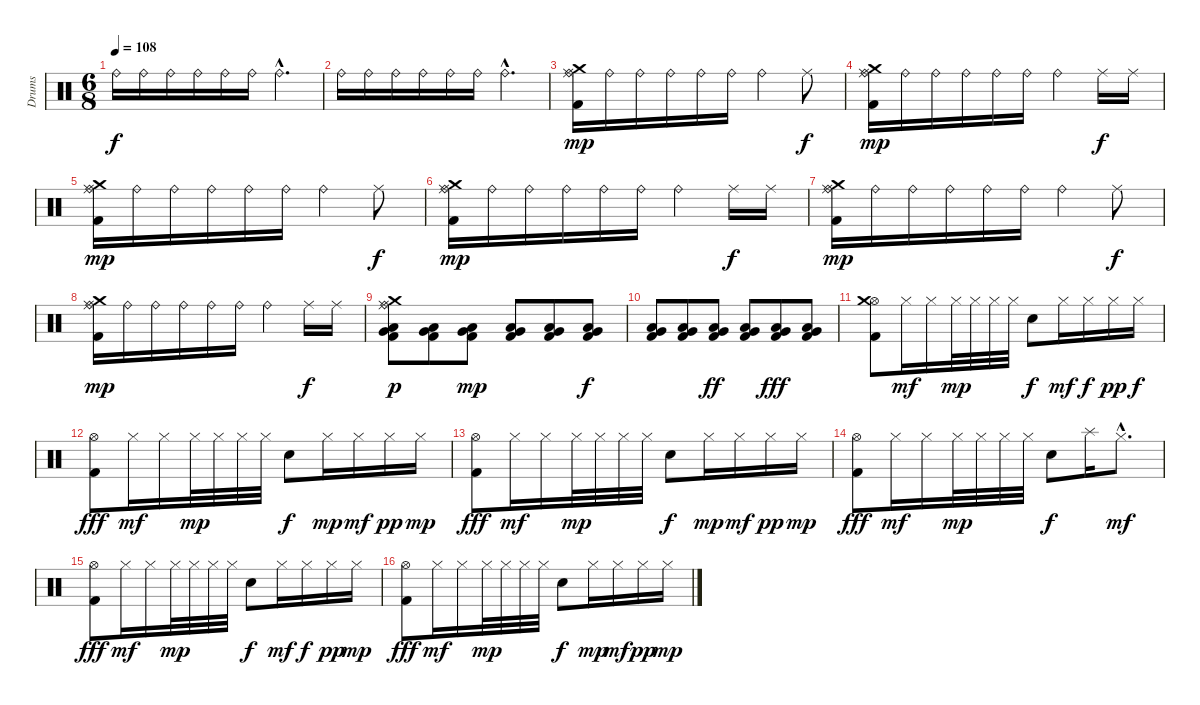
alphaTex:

\track ("Drums" "Drums") {instrument percussion}
\staff {score}
\articulation defaults
\ts (6 8)
\tempo 108
\clef neutral
\ks c "Ride (bell)".16{dy f} "Ride (bell)".16 "Ride (bell)".16 "Ride (bell)".16 "Ride (bell)".16 "Ride (bell)".16 "Ride (bell)"{hac}.4{d}
|
"Ride (bell)".16 "Ride (bell)".16 "Ride (bell)".16 "Ride (bell)".16 "Ride (bell)".16 "Ride (bell)".16 "Ride (bell)"{hac}.4{d} |
("Ride (bell)" "Ride (middle)" "Crash medium (hit)" "Kick (hit) 2").16{dy mp} "Ride (bell)".16 "Ride (bell)".16 "Ride (bell)".16 "Ride (bell)".16 "Ride (bell)".16 "Ride (bell)".4 "Ride (middle)".8{dy f} |
("Ride (bell)" "Ride (middle)" "Crash medium (hit)" "Kick (hit) 2").16{dy mp} "Ride (bell)".16 "Ride (bell)".16 "Ride (bell)".16 "Ride (bell)".16 "Ride (bell)".16 "Ride (bell)".4 "Ride (middle)".16{dy f} "Ride (middle)".16 |
("Ride (bell)" "Ride (middle)" "Crash medium (hit)" "Kick (hit) 2").16{dy mp} "Ride (bell)".16 "Ride (bell)".16 "Ride (bell)".16 "Ride (bell)".16 "Ride (bell)".16 "Ride (bell)".4 "Ride (middle)".8{dy f} |
("Ride (bell)" "Ride (middle)" "Crash medium (hit)" "Kick (hit) 2").16{dy mp} "Ride (bell)".16 "Ride (bell)".16 "Ride (bell)".16 "Ride (bell)".16 "Ride (bell)".16 "Ride (bell)".4 "Ride (middle)".16{dy f} "Ride (middle)".16 |
("Ride (bell)" "Ride (middle)" "Crash medium (hit)" "Kick (hit) 2").16{dy mp} "Ride (bell)".16 "Ride (bell)".16 "Ride (bell)".16 "Ride (bell)".16 "Ride (bell)".16 "Ride (bell)".4 "Ride (middle)".8{dy f} |
("Ride (bell)" "Ride (middle)" "Crash medium (hit)" "Kick (hit) 2").16{dy mp} "Ride (bell)".16 "Ride (bell)".16 "Ride (bell)".16 "Ride (bell)".16 "Ride (bell)".16 "Ride (bell)".4 "Ride (middle)".16{dy f} "Ride (middle)".16 |
("Ride (bell)" "Ride (middle)" "Crash medium (hit)" "Very Low Tom (hit)" "Low Tom (hit)" "Kick (hit) 2").8{dy p} ("Very Low Tom (hit)" "Low Tom (hit)" "Kick (hit) 2").8 ("Very Low Tom (hit)" "Low Tom (hit)" "Kick (hit) 2").8{dy mp} ("Very Low Tom (hit)" "Low Tom (hit)" "Kick (hit) 2").8 ("Very Low Tom (hit)" "Low Tom (hit)" "Kick (hit) 2").8 ("Very Low Tom (hit)" "Low Tom (hit)" "Kick (hit) 2").8{dy f} |
("Very Low Tom (hit)" "Low Tom (hit)" "Kick (hit) 2").8 ("Very Low Tom (hit)" "Low Tom (hit)" "Kick (hit) 2").8 ("Very Low Tom (hit)" "Low Tom (hit)" "Kick (hit) 2").8{dy ff} ("Very Low Tom (hit)" "Low Tom (hit)" "Kick (hit) 2").8 ("Very Low Tom (hit)" "Low Tom (hit)" "Kick (hit) 2").8{dy fff} ("Very Low Tom (hit)" "Low Tom (hit)" "Kick (hit) 2").8 |
("Hi-Hat (open)" "Crash medium (hit)" "Kick (hit) 2").8 "Hi-Hat (closed)".16{dy mf} "Hi-Hat (closed)".16 "Hi-Hat (closed)".32{dy mp} "Hi-Hat (closed)".32 "Hi-Hat (closed)".32 "Hi-Hat (closed)".32 "Snare (hit) 2".8{dy f} "Hi-Hat (closed)".16{dy mf} "Hi-Hat (closed)".16{dy f} "Hi-Hat (closed)".16{dy pp} "Hi-Hat (closed)".16{dy f} |
("Hi-Hat (open)" "Kick (hit) 2").8{dy fff} "Hi-Hat (closed)".16{dy mf} "Hi-Hat (closed)".16 "Hi-Hat (closed)".32{dy mp} "Hi-Hat (closed)".32 "Hi-Hat (closed)".32 "Hi-Hat (closed)".32 "Snare (hit) 2".8{dy f} "Hi-Hat (closed)".16{dy mp} "Hi-Hat (closed)".16{dy mf} "Hi-Hat (closed)".16{dy pp} "Hi-Hat (closed)".16{dy mp} |
("Hi-Hat (open)" "Kick (hit) 2").8{dy fff} "Hi-Hat (closed)".16{dy mf} "Hi-Hat (closed)".16 "Hi-Hat (closed)".32{dy mp} "Hi-Hat (closed)".32 "Hi-Hat (closed)".32 "Hi-Hat (closed)".32 "Snare (hit) 2".8{dy f} "Hi-Hat (closed)".16{dy mp} "Hi-Hat (closed)".16{dy mf} "Hi-Hat (closed)".16{dy pp} "Hi-Hat (closed)".16{dy mp} |
("Hi-Hat (open)" "Kick (hit) 2").8{dy fff} "Hi-Hat (closed)".16{dy mf} "Hi-Hat (closed)".16 "Hi-Hat (closed)".32{dy mp} "Hi-Hat (closed)".32 "Hi-Hat (closed)".32 "Hi-Hat (closed)".32 "Snare (hit) 2".8{dy f} "Splash (hit)".16 "Hi-Hat (closed)"{hac}.8{d dy mf} |
("Hi-Hat (open)" "Kick (hit) 2").8{dy fff} "Hi-Hat (closed)".16{dy mf} "Hi-Hat (closed)".16 "Hi-Hat (closed)".32{dy mp} "Hi-Hat (closed)".32 "Hi-Hat (closed)".32 "Hi-Hat (closed)".32 "Snare (hit) 2".8{dy f} "Hi-Hat (closed)".16{dy mf} "Hi-Hat (closed)".16{dy f} "Hi-Hat (closed)".16{dy pp} "Hi-Hat (closed)".16{dy mp} |
("Hi-Hat (open)" "Kick (hit) 2").8{dy fff} "Hi-Hat (closed)".16{dy mf} "Hi-Hat (closed)".16 "Hi-Hat (closed)".32{dy mp} "Hi-Hat (closed)".32 "Hi-Hat (closed)".32 "Hi-Hat (closed)".32 "Snare (hit) 2".8{dy f} "Hi-Hat (closed)".16{dy mp} "Hi-Hat (closed)".16{dy mf} "Hi-Hat (closed)".16{dy pp} "Hi-Hat (closed)".16{dy mp}
